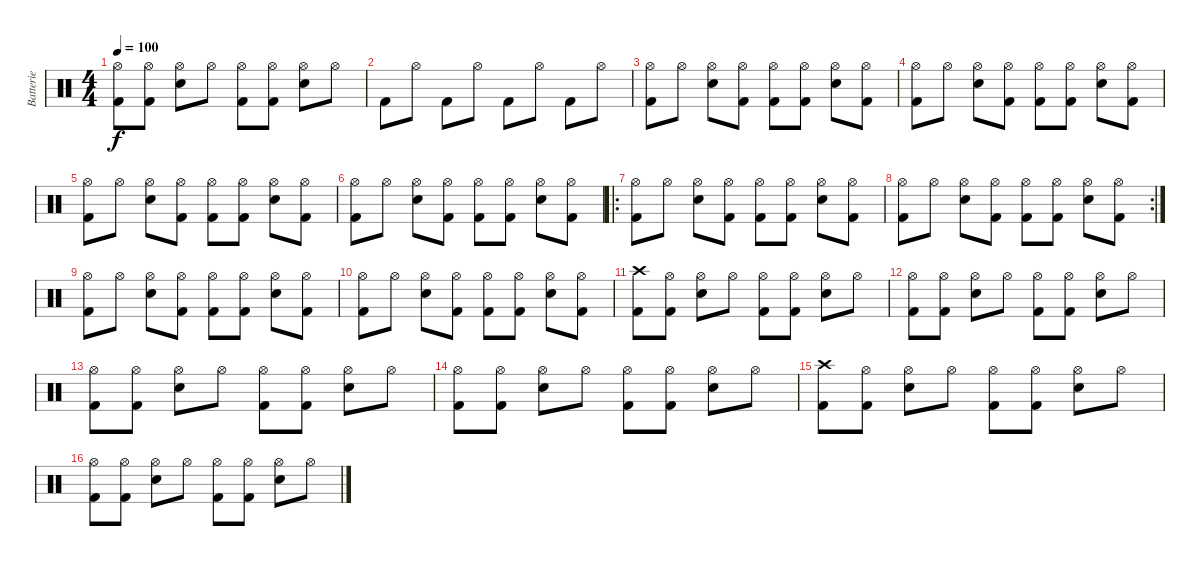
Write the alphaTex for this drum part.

\track ("Batterie" "Batterie") {instrument percussion}
\staff {score}
\articulation defaults
\ts (4 4)
\tempo 100
\clef neutral
\ks c
("Hi-Hat (open)" "Kick (hit) 2").8{dy f} ("Hi-Hat (open)" "Kick (hit) 2").8 ("Hi-Hat (open)" "Snare (hit) 2").8 "Hi-Hat (open)".8 ("Hi-Hat (open)" "Kick (hit) 2").8 ("Hi-Hat (open)" "Kick (hit) 2").8 ("Hi-Hat (open)" "Snare (hit) 2").8 "Hi-Hat (open)".8 |
"Kick (hit) 2".8 "Hi-Hat (open)".8 "Kick (hit) 2".8 "Hi-Hat (open)".8 "Kick (hit) 2".8 "Hi-Hat (open)".8 "Kick (hit) 2".8 "Hi-Hat (open)".8 |
("Hi-Hat (open)" "Kick (hit) 2").8 "Hi-Hat (open)".8 ("Hi-Hat (open)" "Snare (hit) 2").8 ("Hi-Hat (open)" "Kick (hit) 2").8 ("Hi-Hat (open)" "Kick (hit) 2").8 ("Hi-Hat (open)" "Kick (hit) 2").8 ("Hi-Hat (open)" "Snare (hit) 2").8 ("Hi-Hat (open)" "Kick (hit) 2").8 |
("Hi-Hat (open)" "Kick (hit) 2").8 "Hi-Hat (open)".8 ("Hi-Hat (open)" "Snare (hit) 2").8 ("Hi-Hat (open)" "Kick (hit) 2").8 ("Hi-Hat (open)" "Kick (hit) 2").8 ("Hi-Hat (open)" "Kick (hit) 2").8 ("Hi-Hat (open)" "Snare (hit) 2").8 ("Hi-Hat (open)" "Kick (hit) 2").8 |
("Hi-Hat (open)" "Kick (hit) 2").8 "Hi-Hat (open)".8 ("Hi-Hat (open)" "Snare (hit) 2").8 ("Hi-Hat (open)" "Kick (hit) 2").8 ("Hi-Hat (open)" "Kick (hit) 2").8 ("Hi-Hat (open)" "Kick (hit) 2").8 ("Hi-Hat (open)" "Snare (hit) 2").8 ("Hi-Hat (open)" "Kick (hit) 2").8 |
("Hi-Hat (open)" "Kick (hit) 2").8 "Hi-Hat (open)".8 ("Hi-Hat (open)" "Snare (hit) 2").8 ("Hi-Hat (open)" "Kick (hit) 2").8 ("Hi-Hat (open)" "Kick (hit) 2").8 ("Hi-Hat (open)" "Kick (hit) 2").8 ("Hi-Hat (open)" "Snare (hit) 2").8 ("Hi-Hat (open)" "Kick (hit) 2").8 |
\ro
("Hi-Hat (open)" "Kick (hit) 2").8 "Hi-Hat (open)".8 ("Hi-Hat (open)" "Snare (hit) 2").8 ("Hi-Hat (open)" "Kick (hit) 2").8 ("Hi-Hat (open)" "Kick (hit) 2").8 ("Hi-Hat (open)" "Kick (hit) 2").8 ("Hi-Hat (open)" "Snare (hit) 2").8 ("Hi-Hat (open)" "Kick (hit) 2").8 |
\rc 2
("Hi-Hat (open)" "Kick (hit) 2").8 "Hi-Hat (open)".8 ("Hi-Hat (open)" "Snare (hit) 2").8 ("Hi-Hat (open)" "Kick (hit) 2").8 ("Hi-Hat (open)" "Kick (hit) 2").8 ("Hi-Hat (open)" "Kick (hit) 2").8 ("Hi-Hat (open)" "Snare (hit) 2").8 ("Hi-Hat (open)" "Kick (hit) 2").8 |
("Hi-Hat (open)" "Kick (hit) 2").8 "Hi-Hat (open)".8 ("Hi-Hat (open)" "Snare (hit) 2").8 ("Hi-Hat (open)" "Kick (hit) 2").8 ("Hi-Hat (open)" "Kick (hit) 2").8 ("Hi-Hat (open)" "Kick (hit) 2").8 ("Hi-Hat (open)" "Snare (hit) 2").8 ("Hi-Hat (open)" "Kick (hit) 2").8 |
("Hi-Hat (open)" "Kick (hit) 2").8 "Hi-Hat (open)".8 ("Hi-Hat (open)" "Snare (hit) 2").8 ("Hi-Hat (open)" "Kick (hit) 2").8 ("Hi-Hat (open)" "Kick (hit) 2").8 ("Hi-Hat (open)" "Kick (hit) 2").8 ("Hi-Hat (open)" "Snare (hit) 2").8 ("Hi-Hat (open)" "Kick (hit) 2").8 |
("Crash high (hit)" "Kick (hit) 2").8 ("Hi-Hat (open)" "Kick (hit) 2").8 ("Hi-Hat (open)" "Snare (hit) 2").8 "Hi-Hat (open)".8 ("Hi-Hat (open)" "Kick (hit) 2").8 ("Hi-Hat (open)" "Kick (hit) 2").8 ("Hi-Hat (open)" "Snare (hit) 2").8 "Hi-Hat (open)".8 |
("Hi-Hat (open)" "Kick (hit) 2").8 ("Hi-Hat (open)" "Kick (hit) 2").8 ("Hi-Hat (open)" "Snare (hit) 2").8 "Hi-Hat (open)".8 ("Hi-Hat (open)" "Kick (hit) 2").8 ("Hi-Hat (open)" "Kick (hit) 2").8 ("Hi-Hat (open)" "Snare (hit) 2").8 "Hi-Hat (open)".8 |
("Hi-Hat (open)" "Kick (hit) 2").8 ("Hi-Hat (open)" "Kick (hit) 2").8 ("Hi-Hat (open)" "Snare (hit) 2").8 "Hi-Hat (open)".8 ("Hi-Hat (open)" "Kick (hit) 2").8 ("Hi-Hat (open)" "Kick (hit) 2").8 ("Hi-Hat (open)" "Snare (hit) 2").8 "Hi-Hat (open)".8 |
("Hi-Hat (open)" "Kick (hit) 2").8 ("Hi-Hat (open)" "Kick (hit) 2").8 ("Hi-Hat (open)" "Snare (hit) 2").8 "Hi-Hat (open)".8 ("Hi-Hat (open)" "Kick (hit) 2").8 ("Hi-Hat (open)" "Kick (hit) 2").8 ("Hi-Hat (open)" "Snare (hit) 2").8 "Hi-Hat (open)".8 |
("Crash high (hit)" "Kick (hit) 2").8 ("Hi-Hat (open)" "Kick (hit) 2").8 ("Hi-Hat (open)" "Snare (hit) 2").8 "Hi-Hat (open)".8 ("Hi-Hat (open)" "Kick (hit) 2").8 ("Hi-Hat (open)" "Kick (hit) 2").8 ("Hi-Hat (open)" "Snare (hit) 2").8 "Hi-Hat (open)".8 |
("Hi-Hat (open)" "Kick (hit) 2").8 ("Hi-Hat (open)" "Kick (hit) 2").8 ("Hi-Hat (open)" "Snare (hit) 2").8 "Hi-Hat (open)".8 ("Hi-Hat (open)" "Kick (hit) 2").8 ("Hi-Hat (open)" "Kick (hit) 2").8 ("Hi-Hat (open)" "Snare (hit) 2").8 "Hi-Hat (open)".8
